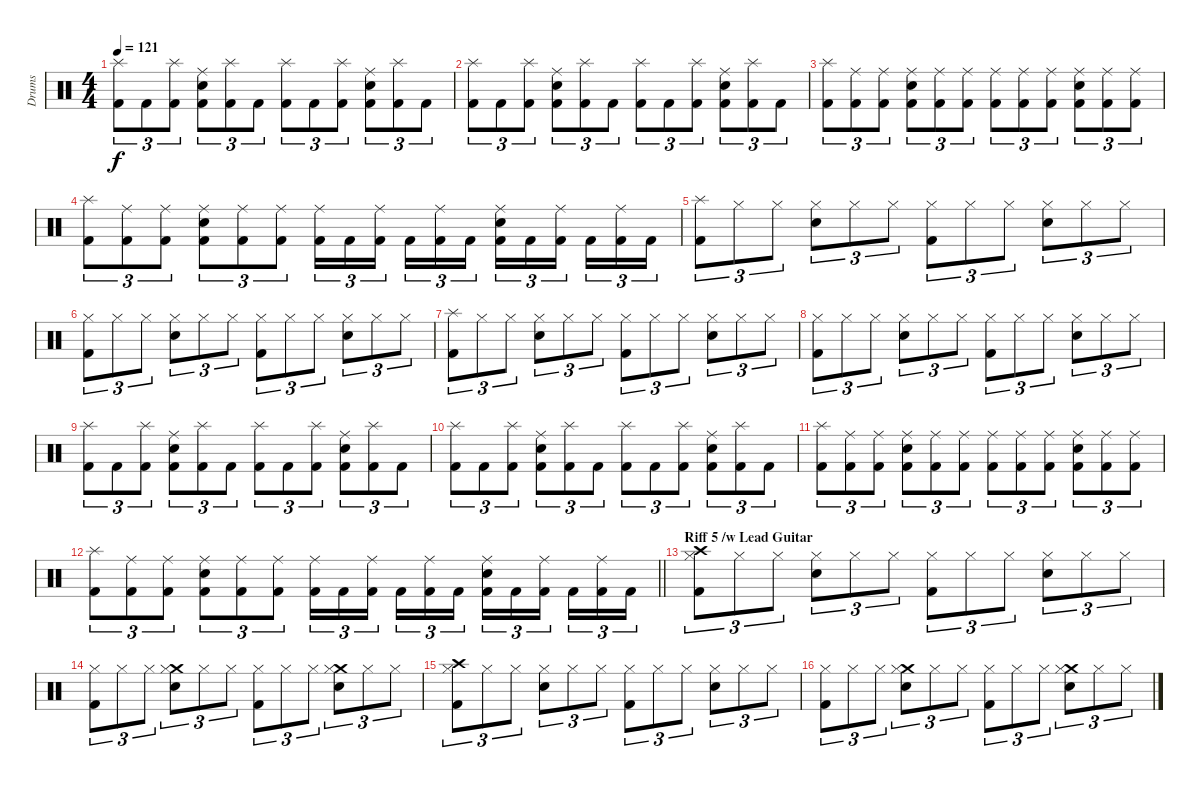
\track ("Drums" "Drums") {instrument percussion}
\staff {score}
\articulation defaults
\ts (4 4)
\tempo 121
\clef neutral
\ks c
("Kick (hit) 2" "Splash (hit)").8{tu (3 2) dy f} "Kick (hit) 2".8{tu (3 2)} ("Kick (hit) 2" "Splash (hit)").8{tu (3 2)} ("Kick (hit) 2" "Snare (hit) 2" "Ride (middle)").8{tu (3 2)} ("Kick (hit) 2" "Splash (hit)").8{tu (3 2)} "Kick (hit) 2".8{tu (3 2)} ("Kick (hit) 2" "Splash (hit)").8{tu (3 2)} "Kick (hit) 2".8{tu (3 2)} ("Kick (hit) 2" "Splash (hit)").8{tu (3 2)} ("Kick (hit) 2" "Snare (hit) 2" "Ride (middle)").8{tu (3 2)} ("Kick (hit) 2" "Splash (hit)").8{tu (3 2)} "Kick (hit) 2".8{tu (3 2)} |
("Kick (hit) 2" "Splash (hit)").8{tu (3 2)} "Kick (hit) 2".8{tu (3 2)} ("Kick (hit) 2" "Splash (hit)").8{tu (3 2)} ("Kick (hit) 2" "Snare (hit) 2" "Ride (middle)").8{tu (3 2)} ("Kick (hit) 2" "Splash (hit)").8{tu (3 2)} "Kick (hit) 2".8{tu (3 2)} ("Kick (hit) 2" "Splash (hit)").8{tu (3 2)} "Kick (hit) 2".8{tu (3 2)} ("Kick (hit) 2" "Splash (hit)").8{tu (3 2)} ("Kick (hit) 2" "Snare (hit) 2" "Ride (middle)").8{tu (3 2)} ("Kick (hit) 2" "Splash (hit)").8{tu (3 2)} "Kick (hit) 2".8{tu (3 2)} |
("Kick (hit) 2" "Splash (hit)").8{tu (3 2)} ("Kick (hit) 2" "Ride (middle)").8{tu (3 2)} ("Kick (hit) 2" "Ride (middle)").8{tu (3 2)} ("Kick (hit) 2" "Snare (hit) 2" "Ride (middle)").8{tu (3 2)} ("Kick (hit) 2" "Ride (middle)").8{tu (3 2)} ("Kick (hit) 2" "Ride (middle)").8{tu (3 2)} ("Kick (hit) 2" "Ride (middle)").8{tu (3 2)} ("Kick (hit) 2" "Ride (middle)").8{tu (3 2)} ("Kick (hit) 2" "Ride (middle)").8{tu (3 2)} ("Kick (hit) 2" "Snare (hit) 2" "Ride (middle)").8{tu (3 2)} ("Kick (hit) 2" "Ride (middle)").8{tu (3 2)} ("Kick (hit) 2" "Ride (middle)").8{tu (3 2)} |
("Kick (hit) 2" "Splash (hit)").8{tu (3 2)} ("Kick (hit) 2" "Ride (middle)").8{tu (3 2)} ("Kick (hit) 2" "Ride (middle)").8{tu (3 2)} ("Kick (hit) 2" "Snare (hit) 2" "Ride (middle)").8{tu (3 2)} ("Kick (hit) 2" "Ride (middle)").8{tu (3 2)} ("Kick (hit) 2" "Ride (middle)").8{tu (3 2)} ("Kick (hit) 2" "Ride (middle)").16{tu (3 2)} "Kick (hit) 2".16{tu (3 2)} ("Kick (hit) 2" "Ride (middle)").16{tu (3 2) beam splitsecondary} "Kick (hit) 2".16{tu (3 2)} ("Kick (hit) 2" "Ride (middle)").16{tu (3 2)} "Kick (hit) 2".16{tu (3 2)} ("Kick (hit) 2" "Snare (hit) 2" "Ride (middle)").16{tu (3 2)} "Kick (hit) 2".16{tu (3 2)} ("Kick (hit) 2" "Ride (middle)").16{tu (3 2) beam splitsecondary} "Kick (hit) 2".16{tu (3 2)} ("Kick (hit) 2" "Ride (middle)").16{tu (3 2)} "Kick (hit) 2".16{tu (3 2)} |
("Kick (hit) 2" "Splash (hit)").8{tu (3 2)} "Hi-Hat (closed)".8{tu (3 2)} "Hi-Hat (closed)".8{tu (3 2)} ("Snare (hit) 2" "Hi-Hat (closed)").8{tu (3 2)} "Hi-Hat (closed)".8{tu (3 2)} "Hi-Hat (closed)".8{tu (3 2)} ("Kick (hit) 2" "Hi-Hat (closed)").8{tu (3 2)} "Hi-Hat (closed)".8{tu (3 2)} "Hi-Hat (closed)".8{tu (3 2)} ("Snare (hit) 2" "Hi-Hat (closed)").8{tu (3 2)} "Hi-Hat (closed)".8{tu (3 2)} "Hi-Hat (closed)".8{tu (3 2)} |
("Kick (hit) 2" "Hi-Hat (closed)").8{tu (3 2)} "Hi-Hat (closed)".8{tu (3 2)} "Hi-Hat (closed)".8{tu (3 2)} ("Snare (hit) 2" "Hi-Hat (closed)").8{tu (3 2)} "Hi-Hat (closed)".8{tu (3 2)} "Hi-Hat (closed)".8{tu (3 2)} ("Kick (hit) 2" "Hi-Hat (closed)").8{tu (3 2)} "Hi-Hat (closed)".8{tu (3 2)} "Hi-Hat (closed)".8{tu (3 2)} ("Snare (hit) 2" "Hi-Hat (closed)").8{tu (3 2)} "Hi-Hat (closed)".8{tu (3 2)} "Hi-Hat (closed)".8{tu (3 2)} |
("Kick (hit) 2" "Splash (hit)").8{tu (3 2)} "Hi-Hat (closed)".8{tu (3 2)} "Hi-Hat (closed)".8{tu (3 2)} ("Snare (hit) 2" "Hi-Hat (closed)").8{tu (3 2)} "Hi-Hat (closed)".8{tu (3 2)} "Hi-Hat (closed)".8{tu (3 2)} ("Kick (hit) 2" "Hi-Hat (closed)").8{tu (3 2)} "Hi-Hat (closed)".8{tu (3 2)} "Hi-Hat (closed)".8{tu (3 2)} ("Snare (hit) 2" "Hi-Hat (closed)").8{tu (3 2)} "Hi-Hat (closed)".8{tu (3 2)} "Hi-Hat (closed)".8{tu (3 2)} |
("Kick (hit) 2" "Hi-Hat (closed)").8{tu (3 2)} "Hi-Hat (closed)".8{tu (3 2)} "Hi-Hat (closed)".8{tu (3 2)} ("Snare (hit) 2" "Hi-Hat (closed)").8{tu (3 2)} "Hi-Hat (closed)".8{tu (3 2)} "Hi-Hat (closed)".8{tu (3 2)} ("Kick (hit) 2" "Hi-Hat (closed)").8{tu (3 2)} "Hi-Hat (closed)".8{tu (3 2)} "Hi-Hat (closed)".8{tu (3 2)} ("Snare (hit) 2" "Hi-Hat (closed)").8{tu (3 2)} "Hi-Hat (closed)".8{tu (3 2)} "Hi-Hat (closed)".8{tu (3 2)} |
("Kick (hit) 2" "Splash (hit)").8{tu (3 2)} "Kick (hit) 2".8{tu (3 2)} ("Kick (hit) 2" "Splash (hit)").8{tu (3 2)} ("Kick (hit) 2" "Snare (hit) 2" "Ride (middle)").8{tu (3 2)} ("Kick (hit) 2" "Splash (hit)").8{tu (3 2)} "Kick (hit) 2".8{tu (3 2)} ("Kick (hit) 2" "Splash (hit)").8{tu (3 2)} "Kick (hit) 2".8{tu (3 2)} ("Kick (hit) 2" "Splash (hit)").8{tu (3 2)} ("Kick (hit) 2" "Snare (hit) 2" "Ride (middle)").8{tu (3 2)} ("Kick (hit) 2" "Splash (hit)").8{tu (3 2)} "Kick (hit) 2".8{tu (3 2)} |
("Kick (hit) 2" "Splash (hit)").8{tu (3 2)} "Kick (hit) 2".8{tu (3 2)} ("Kick (hit) 2" "Splash (hit)").8{tu (3 2)} ("Kick (hit) 2" "Snare (hit) 2" "Ride (middle)").8{tu (3 2)} ("Kick (hit) 2" "Splash (hit)").8{tu (3 2)} "Kick (hit) 2".8{tu (3 2)} ("Kick (hit) 2" "Splash (hit)").8{tu (3 2)} "Kick (hit) 2".8{tu (3 2)} ("Kick (hit) 2" "Splash (hit)").8{tu (3 2)} ("Kick (hit) 2" "Snare (hit) 2" "Ride (middle)").8{tu (3 2)} ("Kick (hit) 2" "Splash (hit)").8{tu (3 2)} "Kick (hit) 2".8{tu (3 2)} |
("Kick (hit) 2" "Splash (hit)").8{tu (3 2)} ("Kick (hit) 2" "Ride (middle)").8{tu (3 2)} ("Kick (hit) 2" "Ride (middle)").8{tu (3 2)} ("Kick (hit) 2" "Snare (hit) 2" "Ride (middle)").8{tu (3 2)} ("Kick (hit) 2" "Ride (middle)").8{tu (3 2)} ("Kick (hit) 2" "Ride (middle)").8{tu (3 2)} ("Kick (hit) 2" "Ride (middle)").8{tu (3 2)} ("Kick (hit) 2" "Ride (middle)").8{tu (3 2)} ("Kick (hit) 2" "Ride (middle)").8{tu (3 2)} ("Kick (hit) 2" "Snare (hit) 2" "Ride (middle)").8{tu (3 2)} ("Kick (hit) 2" "Ride (middle)").8{tu (3 2)} ("Kick (hit) 2" "Ride (middle)").8{tu (3 2)} |
\barLineRight lightlight
("Kick (hit) 2" "Splash (hit)").8{tu (3 2)} ("Kick (hit) 2" "Ride (middle)").8{tu (3 2)} ("Kick (hit) 2" "Ride (middle)").8{tu (3 2)} ("Kick (hit) 2" "Snare (hit) 2" "Ride (middle)").8{tu (3 2)} ("Kick (hit) 2" "Ride (middle)").8{tu (3 2)} ("Kick (hit) 2" "Ride (middle)").8{tu (3 2)} ("Kick (hit) 2" "Ride (middle)").16{tu (3 2)} "Kick (hit) 2".16{tu (3 2)} ("Kick (hit) 2" "Ride (middle)").16{tu (3 2) beam splitsecondary} "Kick (hit) 2".16{tu (3 2)} ("Kick (hit) 2" "Ride (middle)").16{tu (3 2)} "Kick (hit) 2".16{tu (3 2)} ("Kick (hit) 2" "Snare (hit) 2" "Ride (middle)").16{tu (3 2)} "Kick (hit) 2".16{tu (3 2)} ("Kick (hit) 2" "Ride (middle)").16{tu (3 2) beam splitsecondary} "Kick (hit) 2".16{tu (3 2)} ("Kick (hit) 2" "Ride (middle)").16{tu (3 2)} "Kick (hit) 2".16{tu (3 2)} |
\section ("" "Riff 5 /w Lead Guitar")
("Crash high (hit)" "Kick (hit) 2" "Hi-Hat (closed)").8{tu (3 2)} "Hi-Hat (closed)".8{tu (3 2)} "Hi-Hat (closed)".8{tu (3 2)} ("Snare (hit) 2" "Hi-Hat (closed)").8{tu (3 2)} "Hi-Hat (closed)".8{tu (3 2)} "Hi-Hat (closed)".8{tu (3 2)} ("Kick (hit) 2" "Hi-Hat (closed)").8{tu (3 2)} "Hi-Hat (closed)".8{tu (3 2)} "Hi-Hat (closed)".8{tu (3 2)} ("Snare (hit) 2" "Hi-Hat (closed)").8{tu (3 2)} "Hi-Hat (closed)".8{tu (3 2)} "Hi-Hat (closed)".8{tu (3 2)} |
("Kick (hit) 2" "Hi-Hat (closed)").8{tu (3 2)} "Hi-Hat (closed)".8{tu (3 2)} "Hi-Hat (closed)".8{tu (3 2)} ("Crash medium (hit)" "Snare (hit) 2" "Hi-Hat (closed)").8{tu (3 2)} "Hi-Hat (closed)".8{tu (3 2)} "Hi-Hat (closed)".8{tu (3 2)} ("Kick (hit) 2" "Hi-Hat (closed)").8{tu (3 2)} "Hi-Hat (closed)".8{tu (3 2)} "Hi-Hat (closed)".8{tu (3 2)} ("Crash medium (hit)" "Snare (hit) 2" "Hi-Hat (closed)").8{tu (3 2)} "Hi-Hat (closed)".8{tu (3 2)} "Hi-Hat (closed)".8{tu (3 2)} |
("Crash high (hit)" "Kick (hit) 2" "Hi-Hat (closed)").8{tu (3 2)} "Hi-Hat (closed)".8{tu (3 2)} "Hi-Hat (closed)".8{tu (3 2)} ("Snare (hit) 2" "Hi-Hat (closed)").8{tu (3 2)} "Hi-Hat (closed)".8{tu (3 2)} "Hi-Hat (closed)".8{tu (3 2)} ("Kick (hit) 2" "Hi-Hat (closed)").8{tu (3 2)} "Hi-Hat (closed)".8{tu (3 2)} "Hi-Hat (closed)".8{tu (3 2)} ("Snare (hit) 2" "Hi-Hat (closed)").8{tu (3 2)} "Hi-Hat (closed)".8{tu (3 2)} "Hi-Hat (closed)".8{tu (3 2)} |
("Kick (hit) 2" "Hi-Hat (closed)").8{tu (3 2)} "Hi-Hat (closed)".8{tu (3 2)} "Hi-Hat (closed)".8{tu (3 2)} ("Crash medium (hit)" "Snare (hit) 2" "Hi-Hat (closed)").8{tu (3 2)} "Hi-Hat (closed)".8{tu (3 2)} "Hi-Hat (closed)".8{tu (3 2)} ("Kick (hit) 2" "Hi-Hat (closed)").8{tu (3 2)} "Hi-Hat (closed)".8{tu (3 2)} "Hi-Hat (closed)".8{tu (3 2)} ("Crash medium (hit)" "Snare (hit) 2" "Hi-Hat (closed)").8{tu (3 2)} "Hi-Hat (closed)".8{tu (3 2)} "Hi-Hat (closed)".8{tu (3 2)}
